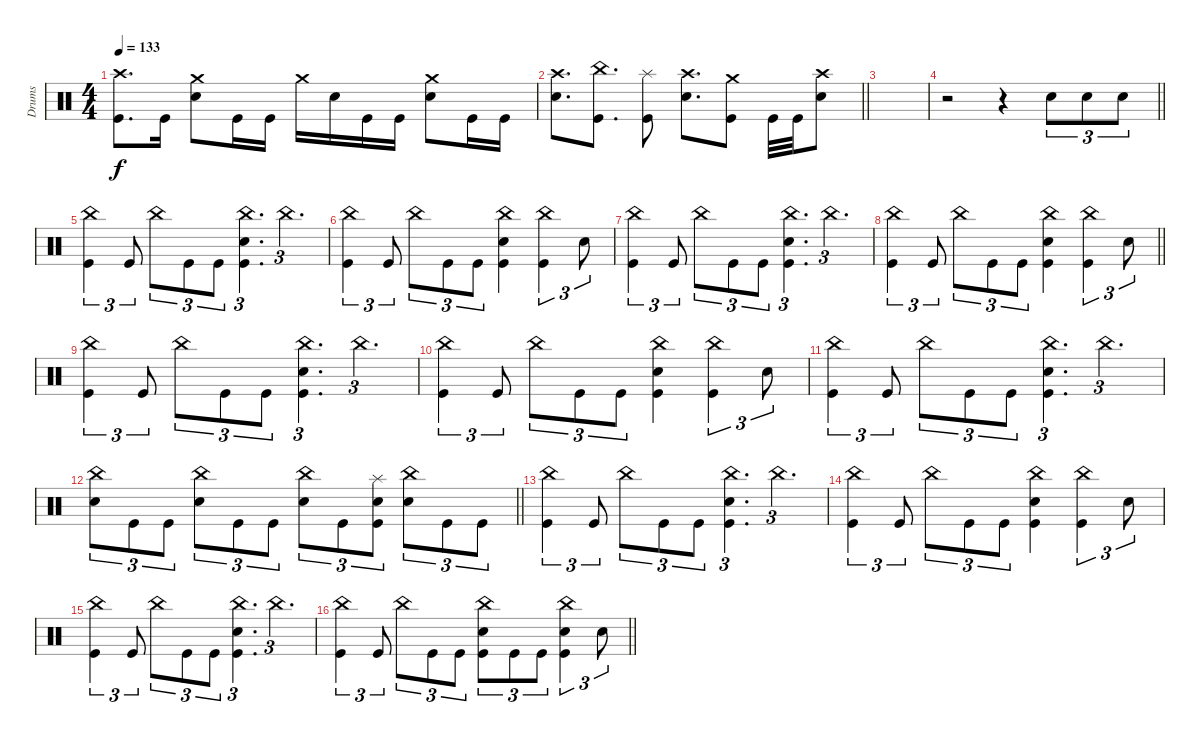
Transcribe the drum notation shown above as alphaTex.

\track ("Drums" "Drums") {instrument percussion}
\staff
\articulation defaults
\ts (4 4)
\tempo 133
\clef neutral
\ks c
("Crash high (hit)" "Kick (hit)").8{d dy f} "Kick (hit)".16 ("Crash medium (hit)" "Electric Snare (hit)").8 "Kick (hit)".16 "Kick (hit)".16 "Crash medium (hit)".16 "Electric Snare (hit)".16 "Kick (hit)".16 "Kick (hit)".16 ("Crash medium (hit)" "Electric Snare (hit)").8 "Kick (hit)".16 "Kick (hit)".16 |
\barLineRight lightlight
("Crash high (hit)" "Electric Snare (hit)").8{d} ("China (hit)" "Kick (hit)").8{d} ("Splash (hit)" "Kick (hit)").8 ("Crash high (hit)" "Electric Snare (hit)").8{d} ("Crash medium (hit)" "Kick (hit)").8 "Kick (hit)".32 "Kick (hit)".32 ("Crash high (hit)" "Electric Snare (hit)").8 |
\section ("" "")
|
\barLineRight lightlight
r.2 r.4 "Electric Snare (hit)".8{tu (3 2)} "Electric Snare (hit)".8{tu (3 2)} "Electric Snare (hit)".8{tu (3 2)} |
\section ("" "")
("China (hit)" "Kick (hit)").4{tu (3 2)} "Kick (hit)".8{tu (3 2)} "China (hit)".8{tu (3 2)} "Kick (hit)".8{tu (3 2)} "Kick (hit)".8{tu (3 2)} ("China (hit)" "Electric Snare (hit)" "Kick (hit)").4{d tu (3 2)} "China (hit)".4{d tu (3 2)} |
("China (hit)" "Kick (hit)").4{tu (3 2)} "Kick (hit)".8{tu (3 2)} "China (hit)".8{tu (3 2)} "Kick (hit)".8{tu (3 2)} "Kick (hit)".8{tu (3 2)} ("China (hit)" "Electric Snare (hit)" "Kick (hit)").4 ("China (hit)" "Kick (hit)").4{tu (3 2)} "Electric Snare (hit)".8{tu (3 2)} |
("China (hit)" "Kick (hit)").4{tu (3 2)} "Kick (hit)".8{tu (3 2)} "China (hit)".8{tu (3 2)} "Kick (hit)".8{tu (3 2)} "Kick (hit)".8{tu (3 2)} ("China (hit)" "Electric Snare (hit)" "Kick (hit)").4{d tu (3 2)} "China (hit)".4{d tu (3 2)} |
\barLineRight lightlight
("China (hit)" "Kick (hit)").4{tu (3 2)} "Kick (hit)".8{tu (3 2)} "China (hit)".8{tu (3 2)} "Kick (hit)".8{tu (3 2)} "Kick (hit)".8{tu (3 2)} ("China (hit)" "Electric Snare (hit)" "Kick (hit)").4 ("China (hit)" "Kick (hit)").4{tu (3 2)} "Electric Snare (hit)".8{tu (3 2)} |
("China (hit)" "Kick (hit)").4{tu (3 2)} "Kick (hit)".8{tu (3 2)} "China (hit)".8{tu (3 2)} "Kick (hit)".8{tu (3 2)} "Kick (hit)".8{tu (3 2)} ("China (hit)" "Electric Snare (hit)" "Kick (hit)").4{d tu (3 2)} "China (hit)".4{d tu (3 2)} |
("China (hit)" "Kick (hit)").4{tu (3 2)} "Kick (hit)".8{tu (3 2)} "China (hit)".8{tu (3 2)} "Kick (hit)".8{tu (3 2)} "Kick (hit)".8{tu (3 2)} ("China (hit)" "Electric Snare (hit)" "Kick (hit)").4 ("China (hit)" "Kick (hit)").4{tu (3 2)} "Electric Snare (hit)".8{tu (3 2)} |
("China (hit)" "Kick (hit)").4{tu (3 2)} "Kick (hit)".8{tu (3 2)} "China (hit)".8{tu (3 2)} "Kick (hit)".8{tu (3 2)} "Kick (hit)".8{tu (3 2)} ("China (hit)" "Electric Snare (hit)" "Kick (hit)").4{d tu (3 2)} "China (hit)".4{d tu (3 2)} |
\barLineRight lightlight
("China (hit)" "Electric Snare (hit)").8{tu (3 2)} "Kick (hit)".8{tu (3 2)} "Kick (hit)".8{tu (3 2)} ("China (hit)" "Electric Snare (hit)").8{tu (3 2)} "Kick (hit)".8{tu (3 2)} "Kick (hit)".8{tu (3 2)} ("China (hit)" "Electric Snare (hit)").8{tu (3 2)} "Kick (hit)".8{tu (3 2)} ("Splash (hit)" "Electric Snare (hit)" "Kick (hit)").8{tu (3 2)} ("China (hit)" "Electric Snare (hit)").8{tu (3 2)} "Kick (hit)".8{tu (3 2)} "Kick (hit)".8{tu (3 2)} |
("China (hit)" "Kick (hit)").4{tu (3 2)} "Kick (hit)".8{tu (3 2)} "China (hit)".8{tu (3 2)} "Kick (hit)".8{tu (3 2)} "Kick (hit)".8{tu (3 2)} ("China (hit)" "Electric Snare (hit)" "Kick (hit)").4{d tu (3 2)} "China (hit)".4{d tu (3 2)} |
("China (hit)" "Kick (hit)").4{tu (3 2)} "Kick (hit)".8{tu (3 2)} "China (hit)".8{tu (3 2)} "Kick (hit)".8{tu (3 2)} "Kick (hit)".8{tu (3 2)} ("China (hit)" "Electric Snare (hit)" "Kick (hit)").4 ("China (hit)" "Kick (hit)").4{tu (3 2)} "Electric Snare (hit)".8{tu (3 2)} |
("China (hit)" "Kick (hit)").4{tu (3 2)} "Kick (hit)".8{tu (3 2)} "China (hit)".8{tu (3 2)} "Kick (hit)".8{tu (3 2)} "Kick (hit)".8{tu (3 2)} ("China (hit)" "Electric Snare (hit)" "Kick (hit)").4{d tu (3 2)} "China (hit)".4{d tu (3 2)} |
\barLineRight lightlight
("China (hit)" "Kick (hit)").4{tu (3 2)} "Kick (hit)".8{tu (3 2)} "China (hit)".8{tu (3 2)} "Kick (hit)".8{tu (3 2)} "Kick (hit)".8{tu (3 2)} ("China (hit)" "Electric Snare (hit)" "Kick (hit)").8{tu (3 2)} "Kick (hit)".8{tu (3 2)} "Kick (hit)".8{tu (3 2)} ("China (hit)" "Electric Snare (hit)" "Kick (hit)").4{tu (3 2)} "Electric Snare (hit)".8{tu (3 2)}
